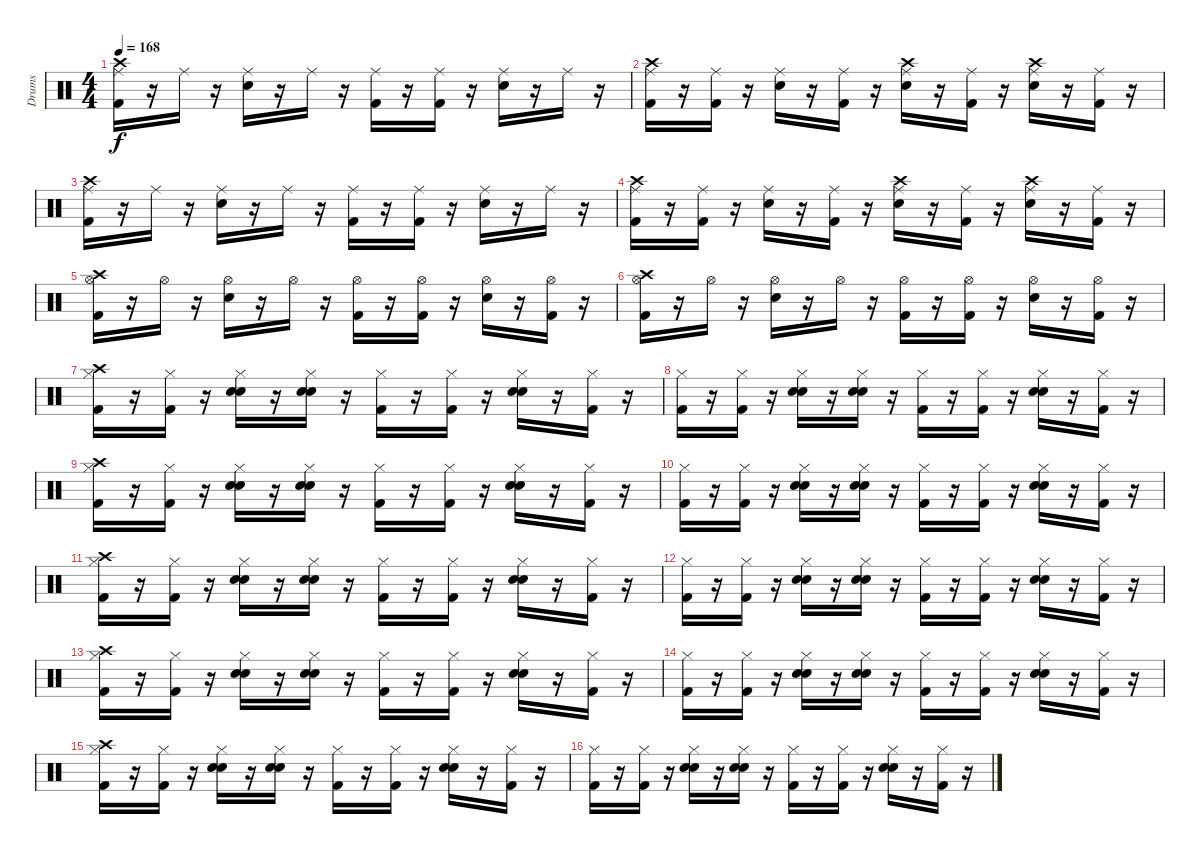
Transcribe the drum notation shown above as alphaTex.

\track ("Drums" "Drums") {instrument percussion}
\staff {score}
\articulation defaults
\ts (4 4)
\tempo 168
\clef neutral
\ks c
("Ride (middle)" "Kick (hit) 2" "Crash high (hit)").16{dy f} r.16 "Ride (middle)".16 r.16 ("Ride (middle)" "Snare (hit) 2").16 r.16 "Ride (middle)".16 r.16 ("Ride (middle)" "Kick (hit) 2").16 r.16 ("Ride (middle)" "Kick (hit) 2").16 r.16 ("Ride (middle)" "Snare (hit) 2").16 r.16 "Ride (middle)".16 r.16 |
("Ride (middle)" "Kick (hit) 2" "Crash high (hit)").16 r.16 ("Ride (middle)" "Kick (hit) 2").16 r.16 ("Ride (middle)" "Snare (hit) 2").16 r.16 ("Ride (middle)" "Kick (hit) 2").16 r.16 ("Ride (middle)" "Snare (hit) 2" "Crash high (hit)").16 r.16 ("Ride (middle)" "Kick (hit) 2").16 r.16 ("Ride (middle)" "Snare (hit) 2" "Crash high (hit)").16 r.16 ("Ride (middle)" "Kick (hit) 2").16 r.16 |
("Ride (middle)" "Kick (hit) 2" "Crash high (hit)").16 r.16 "Ride (middle)".16 r.16 ("Ride (middle)" "Snare (hit) 2").16 r.16 "Ride (middle)".16 r.16 ("Ride (middle)" "Kick (hit) 2").16 r.16 ("Ride (middle)" "Kick (hit) 2").16 r.16 ("Ride (middle)" "Snare (hit) 2").16 r.16 "Ride (middle)".16 r.16 |
("Ride (middle)" "Kick (hit) 2" "Crash high (hit)").16 r.16 ("Ride (middle)" "Kick (hit) 2").16 r.16 ("Ride (middle)" "Snare (hit) 2").16 r.16 ("Ride (middle)" "Kick (hit) 2").16 r.16 ("Ride (middle)" "Snare (hit) 2" "Crash high (hit)").16 r.16 ("Ride (middle)" "Kick (hit) 2").16 r.16 ("Ride (middle)" "Snare (hit) 2" "Crash high (hit)").16 r.16 ("Ride (middle)" "Kick (hit) 2").16 r.16 |
("Hi-Hat (open)" "Kick (hit) 2" "Crash high (hit)").16 r.16 "Hi-Hat (open)".16 r.16 ("Hi-Hat (open)" "Snare (hit) 2").16 r.16 "Hi-Hat (open)".16 r.16 ("Hi-Hat (open)" "Kick (hit) 2").16 r.16 ("Hi-Hat (open)" "Kick (hit) 2").16 r.16 ("Hi-Hat (open)" "Snare (hit) 2").16 r.16 ("Hi-Hat (open)" "Kick (hit) 2").16 r.16 |
("Hi-Hat (open)" "Kick (hit) 2" "Crash high (hit)").16 r.16 "Hi-Hat (open)".16 r.16 ("Hi-Hat (open)" "Snare (hit) 2").16 r.16 "Hi-Hat (open)".16 r.16 ("Hi-Hat (open)" "Kick (hit) 2").16 r.16 ("Hi-Hat (open)" "Kick (hit) 2").16 r.16 ("Hi-Hat (open)" "Snare (hit) 2").16 r.16 ("Hi-Hat (open)" "Kick (hit) 2").16 r.16 |
("Hi-Hat (closed)" "Kick (hit) 2" "Crash high (hit)").16 r.16 ("Hi-Hat (closed)" "Kick (hit) 2").16 r.16 ("Hi-Hat (closed)" "Snare (hit) 2" "Hand Clap (hit)").16 r.16 ("Hi-Hat (closed)" "Snare (hit) 2" "Hand Clap (hit)").16 r.16 ("Hi-Hat (closed)" "Kick (hit) 2").16 r.16 ("Hi-Hat (closed)" "Kick (hit) 2").16 r.16 ("Hi-Hat (closed)" "Snare (hit) 2" "Hand Clap (hit)").16 r.16 ("Hi-Hat (closed)" "Kick (hit) 2").16 r.16 |
("Hi-Hat (closed)" "Kick (hit) 2").16 r.16 ("Hi-Hat (closed)" "Kick (hit) 2").16 r.16 ("Hi-Hat (closed)" "Snare (hit) 2" "Hand Clap (hit)").16 r.16 ("Hi-Hat (closed)" "Snare (hit) 2" "Hand Clap (hit)").16 r.16 ("Hi-Hat (closed)" "Kick (hit) 2").16 r.16 ("Hi-Hat (closed)" "Kick (hit) 2").16 r.16 ("Hi-Hat (closed)" "Snare (hit) 2" "Hand Clap (hit)").16 r.16 ("Hi-Hat (closed)" "Kick (hit) 2").16 r.16 |
("Hi-Hat (closed)" "Kick (hit) 2" "Crash high (hit)").16 r.16 ("Hi-Hat (closed)" "Kick (hit) 2").16 r.16 ("Hi-Hat (closed)" "Snare (hit) 2" "Hand Clap (hit)").16 r.16 ("Hi-Hat (closed)" "Snare (hit) 2" "Hand Clap (hit)").16 r.16 ("Hi-Hat (closed)" "Kick (hit) 2").16 r.16 ("Hi-Hat (closed)" "Kick (hit) 2").16 r.16 ("Hi-Hat (closed)" "Snare (hit) 2" "Hand Clap (hit)").16 r.16 ("Hi-Hat (closed)" "Kick (hit) 2").16 r.16 |
("Hi-Hat (closed)" "Kick (hit) 2").16 r.16 ("Hi-Hat (closed)" "Kick (hit) 2").16 r.16 ("Hi-Hat (closed)" "Snare (hit) 2" "Hand Clap (hit)").16 r.16 ("Hi-Hat (closed)" "Snare (hit) 2" "Hand Clap (hit)").16 r.16 ("Hi-Hat (closed)" "Kick (hit) 2").16 r.16 ("Hi-Hat (closed)" "Kick (hit) 2").16 r.16 ("Hi-Hat (closed)" "Snare (hit) 2" "Hand Clap (hit)").16 r.16 ("Hi-Hat (closed)" "Kick (hit) 2").16 r.16 |
("Hi-Hat (closed)" "Kick (hit) 2" "Crash high (hit)").16 r.16 ("Hi-Hat (closed)" "Kick (hit) 2").16 r.16 ("Hi-Hat (closed)" "Snare (hit) 2" "Hand Clap (hit)").16 r.16 ("Hi-Hat (closed)" "Snare (hit) 2" "Hand Clap (hit)").16 r.16 ("Hi-Hat (closed)" "Kick (hit) 2").16 r.16 ("Hi-Hat (closed)" "Kick (hit) 2").16 r.16 ("Hi-Hat (closed)" "Snare (hit) 2" "Hand Clap (hit)").16 r.16 ("Hi-Hat (closed)" "Kick (hit) 2").16 r.16 |
("Hi-Hat (closed)" "Kick (hit) 2").16 r.16 ("Hi-Hat (closed)" "Kick (hit) 2").16 r.16 ("Hi-Hat (closed)" "Snare (hit) 2" "Hand Clap (hit)").16 r.16 ("Hi-Hat (closed)" "Snare (hit) 2" "Hand Clap (hit)").16 r.16 ("Hi-Hat (closed)" "Kick (hit) 2").16 r.16 ("Hi-Hat (closed)" "Kick (hit) 2").16 r.16 ("Hi-Hat (closed)" "Snare (hit) 2" "Hand Clap (hit)").16 r.16 ("Hi-Hat (closed)" "Kick (hit) 2").16 r.16 |
("Hi-Hat (closed)" "Kick (hit) 2" "Crash high (hit)").16 r.16 ("Hi-Hat (closed)" "Kick (hit) 2").16 r.16 ("Hi-Hat (closed)" "Snare (hit) 2" "Hand Clap (hit)").16 r.16 ("Hi-Hat (closed)" "Snare (hit) 2" "Hand Clap (hit)").16 r.16 ("Hi-Hat (closed)" "Kick (hit) 2").16 r.16 ("Hi-Hat (closed)" "Kick (hit) 2").16 r.16 ("Hi-Hat (closed)" "Snare (hit) 2" "Hand Clap (hit)").16 r.16 ("Hi-Hat (closed)" "Kick (hit) 2").16 r.16 |
("Hi-Hat (closed)" "Kick (hit) 2").16 r.16 ("Hi-Hat (closed)" "Kick (hit) 2").16 r.16 ("Hi-Hat (closed)" "Snare (hit) 2" "Hand Clap (hit)").16 r.16 ("Hi-Hat (closed)" "Snare (hit) 2" "Hand Clap (hit)").16 r.16 ("Hi-Hat (closed)" "Kick (hit) 2").16 r.16 ("Hi-Hat (closed)" "Kick (hit) 2").16 r.16 ("Hi-Hat (closed)" "Snare (hit) 2" "Hand Clap (hit)").16 r.16 ("Hi-Hat (closed)" "Kick (hit) 2").16 r.16 |
("Hi-Hat (closed)" "Kick (hit) 2" "Crash high (hit)").16 r.16 ("Hi-Hat (closed)" "Kick (hit) 2").16 r.16 ("Hi-Hat (closed)" "Snare (hit) 2" "Hand Clap (hit)").16 r.16 ("Hi-Hat (closed)" "Snare (hit) 2" "Hand Clap (hit)").16 r.16 ("Hi-Hat (closed)" "Kick (hit) 2").16 r.16 ("Hi-Hat (closed)" "Kick (hit) 2").16 r.16 ("Hi-Hat (closed)" "Snare (hit) 2" "Hand Clap (hit)").16 r.16 ("Hi-Hat (closed)" "Kick (hit) 2").16 r.16 |
("Hi-Hat (closed)" "Kick (hit) 2").16 r.16 ("Hi-Hat (closed)" "Kick (hit) 2").16 r.16 ("Hi-Hat (closed)" "Snare (hit) 2" "Hand Clap (hit)").16 r.16 ("Hi-Hat (closed)" "Snare (hit) 2" "Hand Clap (hit)").16 r.16 ("Hi-Hat (closed)" "Kick (hit) 2").16 r.16 ("Hi-Hat (closed)" "Kick (hit) 2").16 r.16 ("Hi-Hat (closed)" "Snare (hit) 2" "Hand Clap (hit)").16 r.16 ("Hi-Hat (closed)" "Kick (hit) 2").16 r.16
